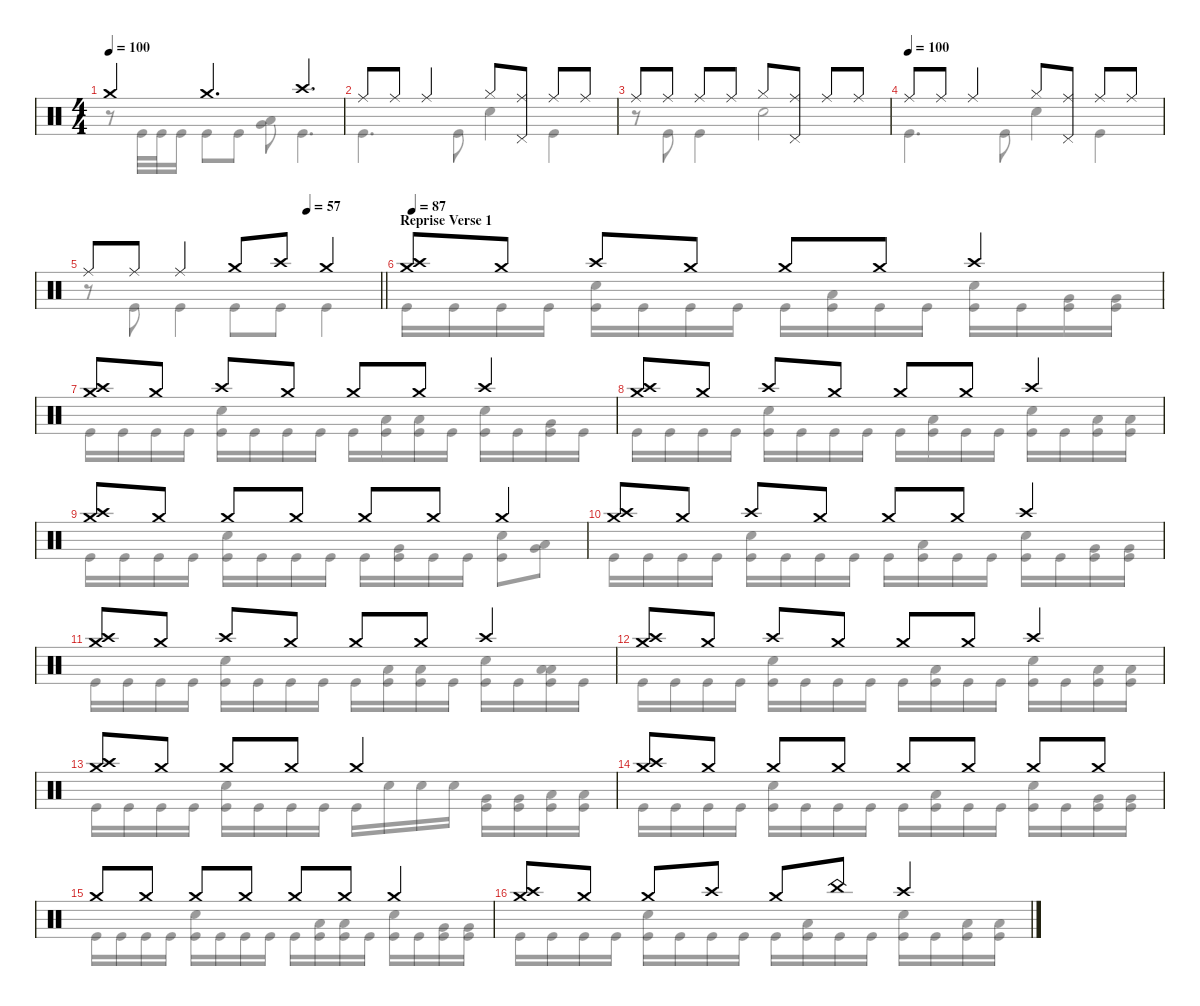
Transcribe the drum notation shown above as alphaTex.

\defaultSystemsLayout 4
\hideDynamics
\bracketExtendMode nobrackets
\singleTrackTrackNamePolicy hidden
\multiTrackTrackNamePolicy hidden
\firstSystemTrackNameMode fullname
\otherSystemsTrackNameOrientation horizontal
\track ("Drums" "drm.") {instrument percussion}
\staff {score}
\articulation defaults
\voice
\ts (4 4)
\tempo 100
\clef neutral
\ks c "Crash medium (hit)".4{dy f beam Up} "Crash medium (hit)".4{d beam Up} "Crash high (hit)".4{d beam Up}
|
"Ride (middle)".8{beam Up} "Ride (middle)".8{beam Up} "Ride (middle)".4{beam Up} "Hi-Hat (closed)".8{beam Up} ("Ride (middle)" "Pedal Hi-Hat (hit)").8{beam Up} "Ride (middle)".8{beam Up} "Ride (middle)".8{beam Up} |
"Ride (middle)".8{beam Up} "Ride (middle)".8{beam Up} "Ride (middle)".8{beam Up} "Ride (middle)".8{beam Up} "Hi-Hat (closed)".8{beam Up} ("Ride (middle)" "Pedal Hi-Hat (hit)").8{beam Up} "Ride (middle)".8{beam Up} "Ride (middle)".8{beam Up} |
\tempo (100)
"Ride (middle)".8{beam Up} "Ride (middle)".8{beam Up} "Ride (middle)".4{beam Up} "Hi-Hat (closed)".8{beam Up} ("Ride (middle)" "Pedal Hi-Hat (hit)").8{beam Up} "Ride (middle)".8{beam Up} "Ride (middle)".8{beam Up} |
\tempo (57 0.75)
\barLineRight lightlight "Ride (middle)".8{beam Up} "Ride (middle)".8{beam Up} "Ride (middle)".4{beam Up} "Crash medium (hit)".8{beam Up} "Crash high (hit)".8{beam Up} "Crash medium (hit)".4{beam Up}
|
\section ("" "Reprise Verse 1")
\tempo 87
("Crash medium (hit)" "Crash high (hit)").8{beam Up} "Crash medium (hit)".8{beam Up} "Crash high (hit)".8{dy mp beam Up} "Crash medium (hit)".8{dy f beam Up} "Crash medium (hit)".8{dy mp beam Up} "Crash medium (hit)".8{dy f beam Up} "Crash high (hit)".4{dy mp beam Up} |
("Crash medium (hit)" "Crash high (hit)").8{dy f beam Up} "Crash medium (hit)".8{beam Up} "Crash high (hit)".8{dy mp beam Up} "Crash medium (hit)".8{dy f beam Up} "Crash medium (hit)".8{dy mp beam Up} "Crash medium (hit)".8{dy f beam Up} "Crash high (hit)".4{dy mp beam Up} |
("Crash medium (hit)" "Crash high (hit)").8{dy f beam Up} "Crash medium (hit)".8{beam Up} "Crash high (hit)".8{dy mp beam Up} "Crash medium (hit)".8{dy f beam Up} "Crash medium (hit)".8{dy mp beam Up} "Crash medium (hit)".8{dy f beam Up} "Crash high (hit)".4{dy mp beam Up} |
("Crash medium (hit)" "Crash high (hit)").8{dy f beam Up} "Crash medium (hit)".8{beam Up} "Crash medium (hit)".8{dy mp beam Up} "Crash medium (hit)".8{dy f beam Up} "Crash medium (hit)".8{dy mp beam Up} "Crash medium (hit)".8{dy f beam Up} "Crash medium (hit)".4{dy mp beam Up} |
("Crash medium (hit)" "Crash high (hit)").8{dy f beam Up} "Crash medium (hit)".8{beam Up} "Crash high (hit)".8{dy mp beam Up} "Crash medium (hit)".8{dy f beam Up} "Crash medium (hit)".8{dy mp beam Up} "Crash medium (hit)".8{dy f beam Up} "Crash high (hit)".4{dy mp beam Up} |
("Crash medium (hit)" "Crash high (hit)").8{dy f beam Up} "Crash medium (hit)".8{beam Up} "Crash high (hit)".8{dy mp beam Up} "Crash medium (hit)".8{dy f beam Up} "Crash medium (hit)".8{dy mp beam Up} "Crash medium (hit)".8{dy f beam Up} "Crash high (hit)".4{dy mp beam Up} |
("Crash medium (hit)" "Crash high (hit)").8{dy f beam Up} "Crash medium (hit)".8{beam Up} "Crash high (hit)".8{dy mp beam Up} "Crash medium (hit)".8{dy f beam Up} "Crash medium (hit)".8{dy mp beam Up} "Crash medium (hit)".8{dy f beam Up} "Crash high (hit)".4{dy mp beam Up} |
("Crash medium (hit)" "Crash high (hit)").8{dy f beam Up} "Crash medium (hit)".8{beam Up} "Crash medium (hit)".8{dy mp beam Up} "Crash medium (hit)".8{dy f beam Up} "Crash medium (hit)".2{beam Up} |
("Crash medium (hit)" "Crash high (hit)").8{beam Up} "Crash medium (hit)".8{beam Up} "Crash medium (hit)".8{dy mp beam Up} "Crash medium (hit)".8{dy f beam Up} "Crash medium (hit)".8{dy mp beam Up} "Crash medium (hit)".8{dy f beam Up} "Crash medium (hit)".8{dy mp beam Up} "Crash medium (hit)".8{beam Up} |
"Crash medium (hit)".8{dy f beam Up} "Crash medium (hit)".8{beam Up} "Crash medium (hit)".8{dy mp beam Up} "Crash medium (hit)".8{dy f beam Up} "Crash medium (hit)".8{dy mp beam Up} "Crash medium (hit)".8{dy f beam Up} "Crash medium (hit)".4{dy mp beam Up} |
("Crash medium (hit)" "Crash high (hit)").8{dy f beam Up} "Crash medium (hit)".8{beam Up} "Crash medium (hit)".8{dy mp beam Up} "Crash high (hit)".8{dy f beam Up} "Crash medium (hit)".8{dy mp beam Up} "China (hit)".8{dy f beam Up} "Crash high (hit)".4{dy mp beam Up}
\voice
\clef neutral
\ottava regular
\simile none
\ks c
r.8{dy f beam Down} "Kick (hit)".32{beam Down} "Kick (hit)".32{beam Down} "Kick (hit)".16{beam Down} "Kick (hit)".8{beam Down} "Kick (hit)".8{beam Down} ("Very Low Tom (hit)" "Low Floor Tom (hit)").8{beam Down} "Kick (hit)".4{d beam Down} |
"Kick (hit)".4{d beam Down} "Kick (hit)".8{beam Down} "Snare (hit) 2".4{beam Down} "Kick (hit)".4{beam Down} |
r.8{beam Down} "Kick (hit)".8{beam Down} "Kick (hit)".4{beam Down} "Snare (hit) 2".2{beam Down} |
"Kick (hit)".4{d beam Down} "Kick (hit)".8{beam Down} "Snare (hit) 2".4{beam Down} "Kick (hit)".4{beam Down} |
\barLineRight lightlight
r.8{beam Down} "Kick (hit)".8{beam Down} "Kick (hit)".4{beam Down} "Kick (hit)".8{beam Down} "Kick (hit)".8{beam Down} "Kick (hit)".4{beam Down} |
"Kick (hit)".16{beam Down} "Kick (hit)".16{beam Down} "Kick (hit)".16{beam Down} "Kick (hit)".16{beam Down} ("Snare (hit) 2" "Kick (hit)").16{beam Down} "Kick (hit)".16{beam Down} "Kick (hit)".16{beam Down} "Kick (hit)".16{beam Down} "Kick (hit)".16{beam Down} ("Low Tom (hit)" "Kick (hit)").16{beam Down} "Kick (hit)".16{beam Down} "Kick (hit)".16{beam Down} ("Snare (hit) 2" "Kick (hit)").16{beam Down} "Kick (hit)".16{beam Down} ("Very Low Tom (hit)" "Kick (hit)").16{beam Down} ("Very Low Tom (hit)" "Kick (hit)").16{beam Down} |
"Kick (hit)".16{beam Down} "Kick (hit)".16{beam Down} "Kick (hit)".16{beam Down} "Kick (hit)".16{beam Down} ("Snare (hit) 2" "Kick (hit)").16{beam Down} "Kick (hit)".16{beam Down} "Kick (hit)".16{beam Down} "Kick (hit)".16{beam Down} "Kick (hit)".16{beam Down} ("Low Tom (hit)" "Kick (hit)").16{beam Down} ("Low Tom (hit)" "Kick (hit)").16{beam Down} "Kick (hit)".16{beam Down} ("Snare (hit) 2" "Kick (hit)").16{beam Down} "Kick (hit)".16{beam Down} ("Very Low Tom (hit)" "Kick (hit)").16{beam Down} "Kick (hit)".16{beam Down} |
"Kick (hit)".16{beam Down} "Kick (hit)".16{beam Down} "Kick (hit)".16{beam Down} "Kick (hit)".16{beam Down} ("Snare (hit) 2" "Kick (hit)").16{beam Down} "Kick (hit)".16{beam Down} "Kick (hit)".16{beam Down} "Kick (hit)".16{beam Down} "Kick (hit)".16{beam Down} ("Low Floor Tom (hit)" "Kick (hit)").16{beam Down} "Kick (hit)".16{beam Down} "Kick (hit)".16{beam Down} ("Snare (hit) 2" "Kick (hit)").16{beam Down} "Kick (hit)".16{beam Down} ("Low Floor Tom (hit)" "Kick (hit)").16{beam Down} ("Low Floor Tom (hit)" "Kick (hit)").16{beam Down} |
"Kick (hit)".16{beam Down} "Kick (hit)".16{beam Down} "Kick (hit)".16{beam Down} "Kick (hit)".16{beam Down} ("Snare (hit) 2" "Kick (hit)").16{beam Down} "Kick (hit)".16{beam Down} "Kick (hit)".16{beam Down} "Kick (hit)".16{beam Down} "Kick (hit)".16{beam Down} ("Very Low Tom (hit)" "Kick (hit)").16{beam Down} "Kick (hit)".16{beam Down} "Kick (hit)".16{beam Down} ("Snare (hit) 2" "Kick (hit)").8{beam Down} ("Very Low Tom (hit)" "Low Floor Tom (hit)").8{beam Down} |
"Kick (hit)".16{beam Down} "Kick (hit)".16{beam Down} "Kick (hit)".16{beam Down} "Kick (hit)".16{beam Down} ("Snare (hit) 2" "Kick (hit)").16{beam Down} "Kick (hit)".16{beam Down} "Kick (hit)".16{beam Down} "Kick (hit)".16{beam Down} "Kick (hit)".16{beam Down} ("Low Tom (hit)" "Kick (hit)").16{beam Down} "Kick (hit)".16{beam Down} "Kick (hit)".16{beam Down} ("Snare (hit) 2" "Kick (hit)").16{beam Down} "Kick (hit)".16{beam Down} ("Very Low Tom (hit)" "Kick (hit)").16{beam Down} ("Very Low Tom (hit)" "Kick (hit)").16{beam Down} |
"Kick (hit)".16{beam Down} "Kick (hit)".16{beam Down} "Kick (hit)".16{beam Down} "Kick (hit)".16{beam Down} ("Snare (hit) 2" "Kick (hit)").16{beam Down} "Kick (hit)".16{beam Down} "Kick (hit)".16{beam Down} "Kick (hit)".16{beam Down} "Kick (hit)".16{beam Down} ("Low Tom (hit)" "Kick (hit)").16{beam Down} ("Low Tom (hit)" "Kick (hit)").16{beam Down} "Kick (hit)".16{beam Down} ("Snare (hit) 2" "Kick (hit)").16{beam Down} "Kick (hit)".16{beam Down} ("Low Tom (hit)" "Low Floor Tom (hit)" "Kick (hit)").16{beam Down} "Kick (hit)".16{beam Down} |
"Kick (hit)".16{beam Down} "Kick (hit)".16{beam Down} "Kick (hit)".16{beam Down} "Kick (hit)".16{beam Down} ("Snare (hit) 2" "Kick (hit)").16{beam Down} "Kick (hit)".16{beam Down} "Kick (hit)".16{beam Down} "Kick (hit)".16{beam Down} "Kick (hit)".16{beam Down} ("Low Floor Tom (hit)" "Kick (hit)").16{beam Down} "Kick (hit)".16{beam Down} "Kick (hit)".16{beam Down} ("Snare (hit) 2" "Kick (hit)").16{beam Down} "Kick (hit)".16{beam Down} ("Low Floor Tom (hit)" "Kick (hit)").16{beam Down} ("Low Floor Tom (hit)" "Kick (hit)").16{beam Down} |
"Kick (hit)".16{beam Down} "Kick (hit)".16{beam Down} "Kick (hit)".16{beam Down} "Kick (hit)".16{beam Down} ("Snare (hit) 2" "Kick (hit)").16{beam Down} "Kick (hit)".16{beam Down} "Kick (hit)".16{beam Down} "Kick (hit)".16{beam Down} "Kick (hit)".16{beam Down} "Snare (hit) 2".16{beam Down} "Snare (hit) 2".16{beam Down} "Snare (hit) 2".16{beam Down} ("Very Low Tom (hit)" "Kick (hit)").16{beam Down} ("Very Low Tom (hit)" "Kick (hit)").16{beam Down} ("Low Floor Tom (hit)" "Kick (hit)").16{beam Down} ("Low Floor Tom (hit)" "Kick (hit)").16{beam Down} |
"Kick (hit)".16{beam Down} "Kick (hit)".16{beam Down} "Kick (hit)".16{beam Down} "Kick (hit)".16{beam Down} ("Snare (hit) 2" "Kick (hit)").16{beam Down} "Kick (hit)".16{beam Down} "Kick (hit)".16{beam Down} "Kick (hit)".16{beam Down} "Kick (hit)".16{beam Down} ("Low Tom (hit)" "Kick (hit)").16{beam Down} "Kick (hit)".16{beam Down} "Kick (hit)".16{beam Down} ("Snare (hit) 2" "Kick (hit)").16{beam Down} "Kick (hit)".16{beam Down} ("Very Low Tom (hit)" "Kick (hit)").16{beam Down} ("Very Low Tom (hit)" "Kick (hit)").16{beam Down} |
"Kick (hit)".16{beam Down} "Kick (hit)".16{beam Down} "Kick (hit)".16{beam Down} "Kick (hit)".16{beam Down} ("Snare (hit) 2" "Kick (hit)").16{beam Down} "Kick (hit)".16{beam Down} "Kick (hit)".16{beam Down} "Kick (hit)".16{beam Down} "Kick (hit)".16{beam Down} ("Low Tom (hit)" "Kick (hit)").16{beam Down} ("Low Tom (hit)" "Kick (hit)").16{beam Down} "Kick (hit)".16{beam Down} ("Snare (hit) 2" "Kick (hit)").16{beam Down} "Kick (hit)".16{beam Down} ("Very Low Tom (hit)" "Kick (hit)").16{beam Down} ("Very Low Tom (hit)" "Kick (hit)").16{beam Down} |
"Kick (hit)".16{beam Down} "Kick (hit)".16{beam Down} "Kick (hit)".16{beam Down} "Kick (hit)".16{beam Down} ("Snare (hit) 2" "Kick (hit)").16{beam Down} "Kick (hit)".16{beam Down} "Kick (hit)".16{beam Down} "Kick (hit)".16{beam Down} "Kick (hit)".16{beam Down} ("Low Floor Tom (hit)" "Kick (hit)").16{beam Down} "Kick (hit)".16{beam Down} "Kick (hit)".16{beam Down} ("Snare (hit) 2" "Kick (hit)").16{beam Down} "Kick (hit)".16{beam Down} ("Low Floor Tom (hit)" "Kick (hit)").16{beam Down} ("Low Floor Tom (hit)" "Kick (hit)").16{beam Down}
